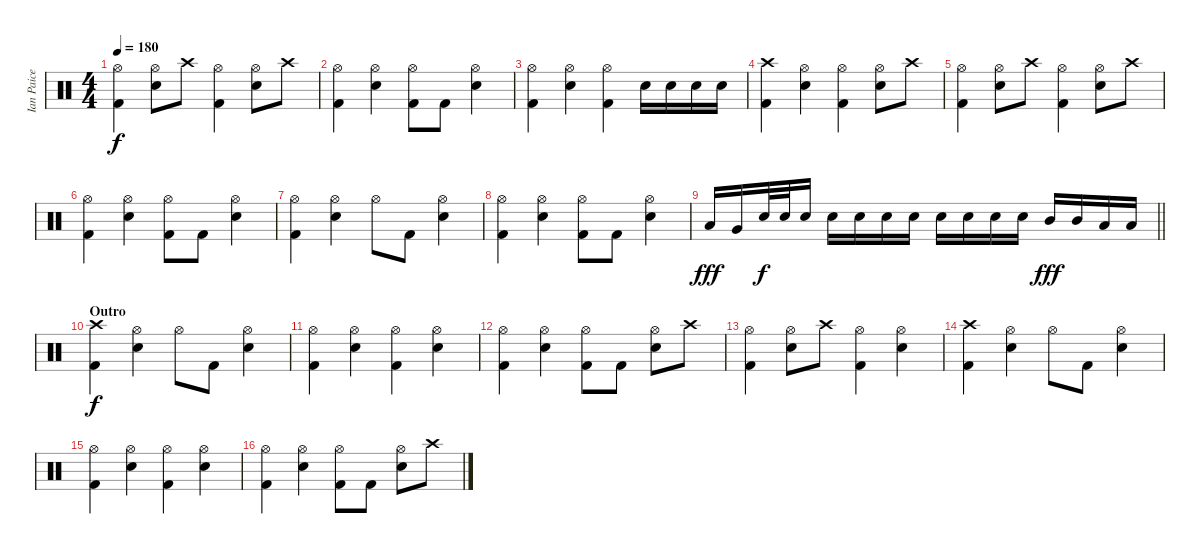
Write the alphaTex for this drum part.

\track ("Ian Paice" "Ian Paice") {instrument percussion}
\staff {score}
\articulation defaults
\ts (4 4)
\tempo 180
\clef neutral
\ks aminor
("Hi-Hat (open)" "Kick (hit) 2").4{dy f} ("Hi-Hat (open)" "Snare (hit) 2").8 "Crash high (hit)".8 ("Hi-Hat (open)" "Kick (hit) 2").4 ("Hi-Hat (open)" "Snare (hit) 2").8 "Crash high (hit)".8 |
("Hi-Hat (open)" "Kick (hit) 2").4 ("Hi-Hat (open)" "Snare (hit) 2").4 ("Hi-Hat (open)" "Kick (hit) 2").8 "Kick (hit) 2".8 ("Hi-Hat (open)" "Snare (hit) 2").4 |
("Hi-Hat (open)" "Kick (hit) 2").4 ("Hi-Hat (open)" "Snare (hit) 2").4 ("Hi-Hat (open)" "Kick (hit) 2").4 "Snare (hit) 2".16 "Snare (hit) 2".16 "Snare (hit) 2".16 "Snare (hit) 2".16 |
("Crash high (hit)" "Kick (hit) 2").4 ("Hi-Hat (open)" "Snare (hit) 2").4 ("Hi-Hat (open)" "Kick (hit) 2").4 ("Hi-Hat (open)" "Snare (hit) 2").8 "Crash high (hit)".8 |
("Hi-Hat (open)" "Kick (hit) 2").4 ("Hi-Hat (open)" "Snare (hit) 2").8 "Crash high (hit)".8 ("Hi-Hat (open)" "Kick (hit) 2").4 ("Hi-Hat (open)" "Snare (hit) 2").8 "Crash high (hit)".8 |
("Hi-Hat (open)" "Kick (hit) 2").4 ("Hi-Hat (open)" "Snare (hit) 2").4 ("Hi-Hat (open)" "Kick (hit) 2").8 "Kick (hit) 2".8 ("Hi-Hat (open)" "Snare (hit) 2").4 |
("Hi-Hat (open)" "Kick (hit) 2").4 ("Hi-Hat (open)" "Snare (hit) 2").4 "Hi-Hat (open)".8 "Kick (hit) 2".8 ("Hi-Hat (open)" "Snare (hit) 2").4 |
("Hi-Hat (open)" "Kick (hit) 2").4 ("Hi-Hat (open)" "Snare (hit) 2").4 ("Hi-Hat (open)" "Kick (hit) 2").8 "Kick (hit) 2".8 ("Hi-Hat (open)" "Snare (hit) 2").4 |
\barLineRight lightlight "Low Tom (hit)".16{dy fff} "Very Low Tom (hit)".16 "Snare (hit) 2".32{dy f} "Snare (hit) 2".32 "Snare (hit) 2".16 "Snare (hit) 2".16 "Snare (hit) 2".16 "Snare (hit) 2".16 "Snare (hit) 2".16 "Snare (hit) 2".16 "Snare (hit) 2".16 "Snare (hit) 2".16 "Snare (hit) 2".16 "Mid Tom (hit)".16{dy fff} "Mid Tom (hit)".16 "Low Tom (hit)".16 "Low Tom (hit)".16
|
\section ("" "Outro")
\ks c
("Crash high (hit)" "Kick (hit) 2").4{dy f} ("Hi-Hat (open)" "Snare (hit) 2").4 "Hi-Hat (open)".8 "Kick (hit) 2".8 ("Hi-Hat (open)" "Snare (hit) 2").4 |
("Hi-Hat (open)" "Kick (hit) 2").4 ("Hi-Hat (open)" "Snare (hit) 2").4 ("Hi-Hat (open)" "Kick (hit) 2").4 ("Hi-Hat (open)" "Snare (hit) 2").4 |
("Hi-Hat (open)" "Kick (hit) 2").4 ("Hi-Hat (open)" "Snare (hit) 2").4 ("Hi-Hat (open)" "Kick (hit) 2").8 "Kick (hit) 2".8 ("Hi-Hat (open)" "Snare (hit) 2").8 "Crash high (hit)".8 |
("Hi-Hat (open)" "Kick (hit) 2").4 ("Hi-Hat (open)" "Snare (hit) 2").8 "Crash high (hit)".8 ("Hi-Hat (open)" "Kick (hit) 2").4 ("Hi-Hat (open)" "Snare (hit) 2").4 |
("Crash high (hit)" "Kick (hit) 2").4 ("Hi-Hat (open)" "Snare (hit) 2").4 "Hi-Hat (open)".8 "Kick (hit) 2".8 ("Hi-Hat (open)" "Snare (hit) 2").4 |
("Hi-Hat (open)" "Kick (hit) 2").4 ("Hi-Hat (open)" "Snare (hit) 2").4 ("Hi-Hat (open)" "Kick (hit) 2").4 ("Hi-Hat (open)" "Snare (hit) 2").4 |
("Hi-Hat (open)" "Kick (hit) 2").4 ("Hi-Hat (open)" "Snare (hit) 2").4 ("Hi-Hat (open)" "Kick (hit) 2").8 "Kick (hit) 2".8 ("Hi-Hat (open)" "Snare (hit) 2").8 "Crash high (hit)".8
